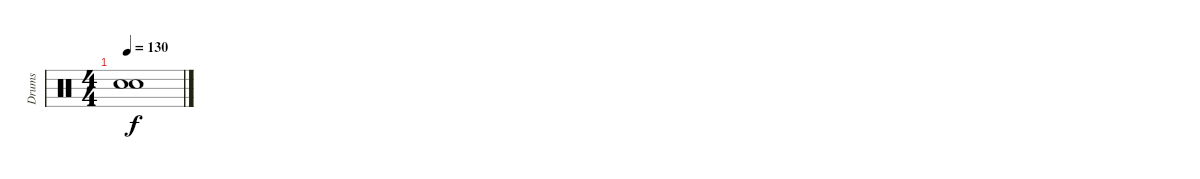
\track ("Drums" "Drums") {instrument percussion}
\staff {score}
\articulation defaults
\ts (4 4)
\tempo 130
\clef neutral
\ks c
("Snare (hit)"{t} "Snare (hit)"{t}).1{dy f}
